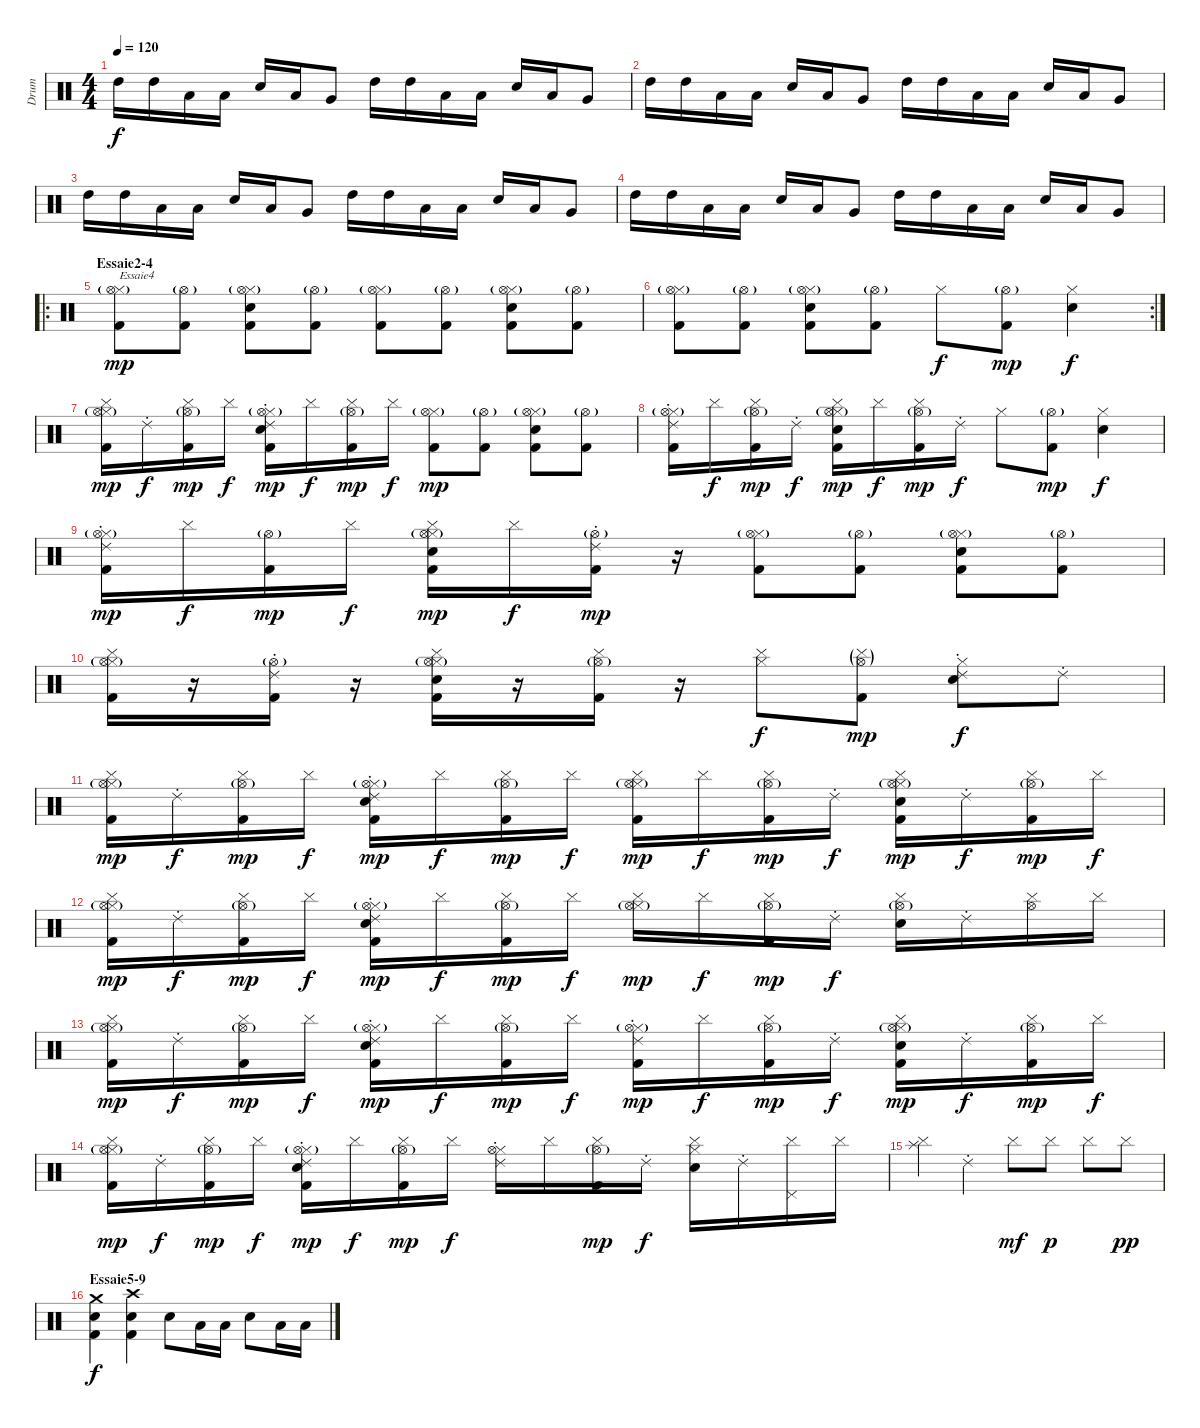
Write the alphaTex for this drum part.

\track ("Drum" "Drum") {instrument percussion}
\staff {score}
\articulation defaults
\ts (4 4)
\tempo 120
\clef neutral
\ks c "High Tom (hit)".16{dy f} "High Tom (hit)".16 "Low Tom (hit)".16 "Low Tom (hit)".16 "Snare (hit) 2".16 "Low Tom (hit)".16 "Very Low Tom (hit)".8 "High Tom (hit)".16 "High Tom (hit)".16 "Low Tom (hit)".16 "Low Tom (hit)".16 "Snare (hit) 2".16 "Low Tom (hit)".16 "Very Low Tom (hit)".8
|
"High Tom (hit)".16 "High Tom (hit)".16 "Low Tom (hit)".16 "Low Tom (hit)".16 "Snare (hit) 2".16 "Low Tom (hit)".16 "Very Low Tom (hit)".8 "High Tom (hit)".16 "High Tom (hit)".16 "Low Tom (hit)".16 "Low Tom (hit)".16 "Snare (hit) 2".16 "Low Tom (hit)".16 "Very Low Tom (hit)".8 |
"High Tom (hit)".16 "High Tom (hit)".16 "Low Tom (hit)".16 "Low Tom (hit)".16 "Snare (hit) 2".16 "Low Tom (hit)".16 "Very Low Tom (hit)".8 "High Tom (hit)".16 "High Tom (hit)".16 "Low Tom (hit)".16 "Low Tom (hit)".16 "Snare (hit) 2".16 "Low Tom (hit)".16 "Very Low Tom (hit)".8 |
"High Tom (hit)".16 "High Tom (hit)".16 "Low Tom (hit)".16 "Low Tom (hit)".16 "Snare (hit) 2".16 "Low Tom (hit)".16 "Very Low Tom (hit)".8 "High Tom (hit)".16 "High Tom (hit)".16 "Low Tom (hit)".16 "Low Tom (hit)".16 "Snare (hit) 2".16 "Low Tom (hit)".16 "Very Low Tom (hit)".8 |
\ro
\section ("" "Essaie2-4")
("Hi-Hat (closed)" "Hi-Hat (open)"{g} "Kick (hit) 2").8{txt "Essaie4" dy mp} ("Hi-Hat (open)"{g} "Kick (hit) 2").8 ("Hi-Hat (closed)" "Snare (hit) 2" "Hi-Hat (open)"{g} "Kick (hit) 2").8 ("Hi-Hat (open)"{g} "Kick (hit) 2").8 ("Hi-Hat (closed)" "Hi-Hat (open)"{g} "Kick (hit) 2").8 ("Hi-Hat (open)"{g} "Kick (hit) 2").8 ("Hi-Hat (closed)" "Snare (hit) 2" "Hi-Hat (open)"{g} "Kick (hit) 2").8 ("Hi-Hat (open)"{g} "Kick (hit) 2").8 |
\rc 2
("Hi-Hat (closed)" "Hi-Hat (open)"{g} "Kick (hit) 2").8 ("Hi-Hat (open)"{g} "Kick (hit) 2").8 ("Hi-Hat (closed)" "Snare (hit) 2" "Hi-Hat (open)"{g} "Kick (hit) 2").8 ("Hi-Hat (open)"{g} "Kick (hit) 2").8 "Hi-Hat (closed)".8{dy f} ("Hi-Hat (open)"{g} "Kick (hit) 2").8{dy mp} ("Hi-Hat (closed)" "Snare (hit) 2").4{dy f} |
("Cymbal (hit)" "Hi-Hat (closed)" "Hi-Hat (open)"{g} "Kick (hit) 2").16{dy mp} "Ride (choke) 2".16{dy f} ("Cymbal (hit)" "Hi-Hat (open)"{g} "Kick (hit) 2").16{dy mp} "Cymbal (hit)".16{dy f} ("Ride (choke) 2" "Hi-Hat (closed)" "Snare (hit) 2" "Hi-Hat (open)"{g} "Kick (hit) 2").16{dy mp} "Cymbal (hit)".16{dy f} ("Cymbal (hit)" "Hi-Hat (open)"{g} "Kick (hit) 2").16{dy mp} "Cymbal (hit)".16{dy f} ("Hi-Hat (closed)" "Hi-Hat (open)"{g} "Kick (hit) 2").8{dy mp} ("Hi-Hat (open)"{g} "Kick (hit) 2").8 ("Hi-Hat (closed)" "Snare (hit) 2" "Hi-Hat (open)"{g} "Kick (hit) 2").8 ("Hi-Hat (open)"{g} "Kick (hit) 2").8 |
("Ride (choke) 2" "Hi-Hat (closed)" "Hi-Hat (open)"{g} "Kick (hit) 2").16 "Cymbal (hit)".16{dy f} ("Cymbal (hit)" "Hi-Hat (open)"{g} "Kick (hit) 2").16{dy mp} "Ride (choke) 2".16{dy f} ("Cymbal (hit)" "Hi-Hat (closed)" "Snare (hit) 2" "Hi-Hat (open)"{g} "Kick (hit) 2").16{dy mp} "Cymbal (hit)".16{dy f} ("Cymbal (hit)" "Hi-Hat (open)"{g} "Kick (hit) 2").16{dy mp} "Ride (choke) 2".16{dy f} "Hi-Hat (closed)".8 ("Hi-Hat (open)"{g} "Kick (hit) 2").8{dy mp} ("Hi-Hat (closed)" "Snare (hit) 2").4{dy f} |
("Ride (choke) 2" "Hi-Hat (closed)" "Hi-Hat (open)"{g} "Kick (hit) 2").16{dy mp} "Cymbal (hit)".16{dy f} ("Hi-Hat (open)"{g} "Kick (hit) 2").16{dy mp} "Cymbal (hit)".16{dy f} ("Cymbal (hit)" "Hi-Hat (closed)" "Snare (hit) 2" "Hi-Hat (open)"{g} "Kick (hit) 2").16{dy mp} "Cymbal (hit)".16{dy f} ("Ride (choke) 2" "Hi-Hat (open)"{g} "Kick (hit) 2").16{dy mp} r.16 ("Hi-Hat (closed)" "Hi-Hat (open)"{g} "Kick (hit) 2").8 ("Hi-Hat (open)"{g} "Kick (hit) 2").8 ("Hi-Hat (closed)" "Snare (hit) 2" "Hi-Hat (open)"{g} "Kick (hit) 2").8 ("Hi-Hat (open)"{g} "Kick (hit) 2").8 |
("Cymbal (hit)" "Hi-Hat (closed)" "Hi-Hat (open)"{g} "Kick (hit) 2").16 r.16 ("Ride (choke) 2" "Hi-Hat (open)"{g} "Kick (hit) 2").16 r.16 ("Cymbal (hit)" "Hi-Hat (closed)" "Snare (hit) 2" "Hi-Hat (open)"{g} "Kick (hit) 2").16 r.16 ("Cymbal (hit)" "Hi-Hat (open)"{g} "Kick (hit) 2").16 r.16 ("Cymbal (hit)" "Hi-Hat (closed)").8{dy f} ("Cymbal (hit)"{g} "Hi-Hat (open)"{g} "Kick (hit) 2").8{dy mp} ("Ride (choke) 2" "Hi-Hat (closed)" "Snare (hit) 2").8{dy f} "Ride (choke) 2".8 |
("Cymbal (hit)" "Hi-Hat (closed)" "Hi-Hat (open)"{g} "Kick (hit) 2").16{dy mp} "Ride (choke) 2".16{dy f} ("Cymbal (hit)" "Hi-Hat (open)"{g} "Kick (hit) 2").16{dy mp} "Cymbal (hit)".16{dy f} ("Ride (choke) 2" "Hi-Hat (closed)" "Snare (hit) 2" "Hi-Hat (open)"{g} "Kick (hit) 2").16{dy mp} "Cymbal (hit)".16{dy f} ("Cymbal (hit)" "Hi-Hat (open)"{g} "Kick (hit) 2").16{dy mp} "Cymbal (hit)".16{dy f} ("Cymbal (hit)" "Hi-Hat (closed)" "Hi-Hat (open)"{g} "Kick (hit) 2").16{dy mp} "Cymbal (hit)".16{dy f} ("Cymbal (hit)" "Hi-Hat (open)"{g} "Kick (hit) 2").16{dy mp} "Ride (choke) 2".16{dy f} ("Cymbal (hit)" "Hi-Hat (closed)" "Snare (hit) 2" "Hi-Hat (open)"{g} "Kick (hit) 2").16{dy mp} "Ride (choke) 2".16{dy f} ("Cymbal (hit)" "Hi-Hat (open)"{g} "Kick (hit) 2").16{dy mp} "Cymbal (hit)".16{dy f} |
("Cymbal (hit)" "Hi-Hat (closed)" "Hi-Hat (open)"{g} "Kick (hit) 2").16{dy mp} "Ride (choke) 2".16{dy f} ("Cymbal (hit)" "Hi-Hat (open)"{g} "Kick (hit) 2").16{dy mp} "Cymbal (hit)".16{dy f} ("Ride (choke) 2" "Hi-Hat (closed)" "Snare (hit) 2" "Hi-Hat (open)"{g} "Kick (hit) 2").16{dy mp} "Cymbal (hit)".16{dy f} ("Cymbal (hit)" "Hi-Hat (open)"{g} "Kick (hit) 2").16{dy mp} "Cymbal (hit)".16{dy f} ("Cymbal (hit)" "Hi-Hat (closed)" "Hi-Hat (open)"{g}).16{dy mp} "Cymbal (hit)".16{dy f} ("Cymbal (hit)" "Hi-Hat (open)"{g} "Kick (hit) 2").16{dy mp} "Ride (choke) 2".16{dy f} ("Cymbal (hit)" "Snare (hit) 2" "Hi-Hat (open)"{g}).16 "Ride (choke) 2".16 ("Cymbal (hit)" "Hi-Hat (open)").16 "Cymbal (hit)".16 |
("Cymbal (hit)" "Hi-Hat (closed)" "Hi-Hat (open)"{g} "Kick (hit) 2").16{dy mp} "Ride (choke) 2".16{dy f} ("Cymbal (hit)" "Hi-Hat (open)"{g} "Kick (hit) 2").16{dy mp} "Cymbal (hit)".16{dy f} ("Ride (choke) 2" "Hi-Hat (closed)" "Snare (hit) 2" "Hi-Hat (open)"{g} "Kick (hit) 2").16{dy mp} "Cymbal (hit)".16{dy f} ("Cymbal (hit)" "Hi-Hat (open)"{g} "Kick (hit) 2").16{dy mp} "Cymbal (hit)".16{dy f} ("Ride (choke) 2" "Hi-Hat (closed)" "Hi-Hat (open)"{g} "Kick (hit) 2").16{dy mp} "Cymbal (hit)".16{dy f} ("Cymbal (hit)" "Hi-Hat (open)"{g} "Kick (hit) 2").16{dy mp} "Ride (choke) 2".16{dy f} ("Cymbal (hit)" "Hi-Hat (closed)" "Snare (hit) 2" "Hi-Hat (open)"{g} "Kick (hit) 2").16{dy mp} "Ride (choke) 2".16{dy f} ("Cymbal (hit)" "Hi-Hat (open)"{g} "Kick (hit) 2").16{dy mp} "Cymbal (hit)".16{dy f} |
("Cymbal (hit)" "Hi-Hat (closed)" "Hi-Hat (open)"{g} "Kick (hit) 2").16{dy mp} "Ride (choke) 2".16{dy f} ("Cymbal (hit)" "Hi-Hat (open)"{g} "Kick (hit) 2").16{dy mp} "Cymbal (hit)".16{dy f} ("Ride (choke) 2" "Hi-Hat (closed)" "Snare (hit) 2" "Hi-Hat (open)"{g} "Kick (hit) 2").16{dy mp} "Cymbal (hit)".16{dy f} ("Cymbal (hit)" "Hi-Hat (open)"{g} "Kick (hit) 2").16{dy mp} "Cymbal (hit)".16{dy f} ("Ride (choke) 2" "Hi-Hat (closed)" "Hi-Hat (open)").16 "Cymbal (hit)".16 ("Cymbal (hit)" "Hi-Hat (open)"{g} "Kick (hit) 2").16{dy mp} "Ride (choke) 2".16{dy f} ("Cymbal (hit)" "Hi-Hat (closed)" "Snare (hit) 2").16 "Ride (choke) 2".16 ("Cymbal (hit)" "Pedal Hi-Hat (hit)").16 "Cymbal (hit)".16 |
("Cymbal (hit)" "Splash (hit)").4 "Ride (choke) 2".4 "Cymbal (hit)".8{dy mf} "Cymbal (hit)".8{dy p} "Cymbal (hit)".8 "Cymbal (hit)".8{dy pp} |
\section ("" "Essaie5-9")
("Crash medium (hit)" "Snare (hit) 2" "Kick (hit) 2").4{dy f} ("Crash high (hit)" "Snare (hit) 2" "Kick (hit) 2").4 "Snare (hit) 2".8 "Low Tom (hit)".16 "Low Tom (hit)".16 "Snare (hit) 2".8 "Low Tom (hit)".16 "Low Tom (hit)".16
